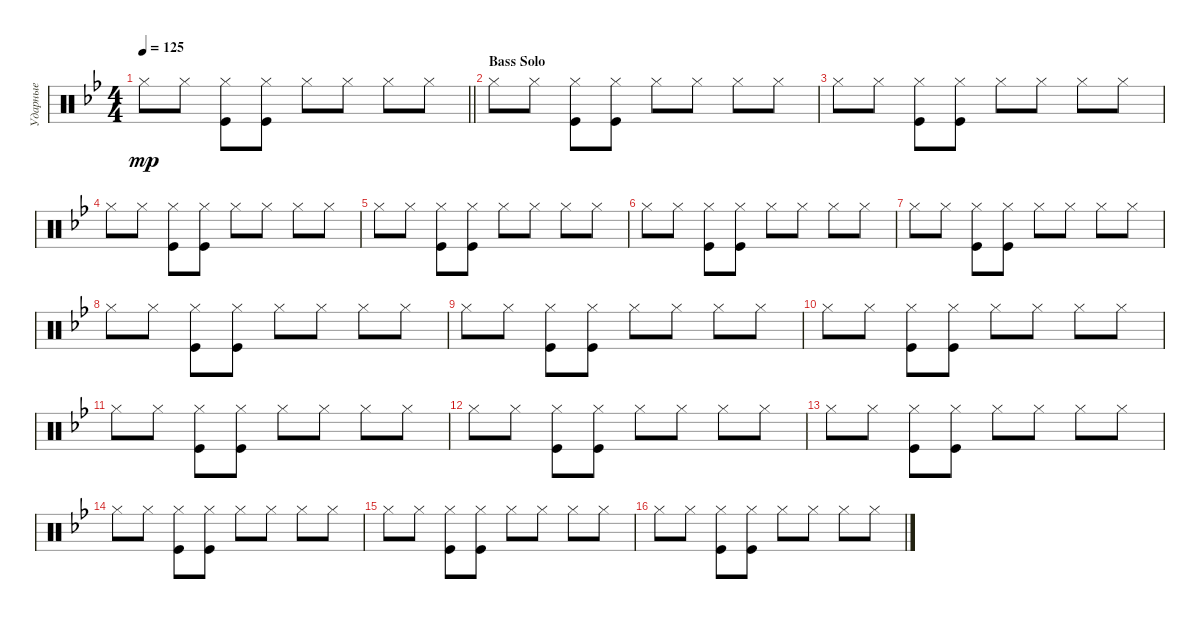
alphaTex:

\track ("Ударные" "Ударные") {instrument percussion}
\staff {score}
\articulation defaults
\ts (4 4)
\tempo 125
\clef neutral
\barLineRight lightlight
\ks gminor "Hi-Hat (closed)".8{dy mp} "Hi-Hat (closed)".8
("Hi-Hat (closed)" "Kick (hit)").8 ("Hi-Hat (closed)" "Kick (hit)").8 "Hi-Hat (closed)".8 "Hi-Hat (closed)".8 "Hi-Hat (closed)".8 "Hi-Hat (closed)".8 |
\section ("" "Bass Solo")
"Hi-Hat (closed)".8 "Hi-Hat (closed)".8 ("Hi-Hat (closed)" "Kick (hit)").8 ("Hi-Hat (closed)" "Kick (hit)").8 "Hi-Hat (closed)".8 "Hi-Hat (closed)".8 "Hi-Hat (closed)".8 "Hi-Hat (closed)".8 |
"Hi-Hat (closed)".8 "Hi-Hat (closed)".8 ("Hi-Hat (closed)" "Kick (hit)").8 ("Hi-Hat (closed)" "Kick (hit)").8 "Hi-Hat (closed)".8 "Hi-Hat (closed)".8 "Hi-Hat (closed)".8 "Hi-Hat (closed)".8 |
"Hi-Hat (closed)".8 "Hi-Hat (closed)".8 ("Hi-Hat (closed)" "Kick (hit)").8 ("Hi-Hat (closed)" "Kick (hit)").8 "Hi-Hat (closed)".8 "Hi-Hat (closed)".8 "Hi-Hat (closed)".8 "Hi-Hat (closed)".8 |
"Hi-Hat (closed)".8 "Hi-Hat (closed)".8 ("Hi-Hat (closed)" "Kick (hit)").8 ("Hi-Hat (closed)" "Kick (hit)").8 "Hi-Hat (closed)".8 "Hi-Hat (closed)".8 "Hi-Hat (closed)".8 "Hi-Hat (closed)".8 |
"Hi-Hat (closed)".8 "Hi-Hat (closed)".8 ("Hi-Hat (closed)" "Kick (hit)").8 ("Hi-Hat (closed)" "Kick (hit)").8 "Hi-Hat (closed)".8 "Hi-Hat (closed)".8 "Hi-Hat (closed)".8 "Hi-Hat (closed)".8 |
"Hi-Hat (closed)".8 "Hi-Hat (closed)".8 ("Hi-Hat (closed)" "Kick (hit)").8 ("Hi-Hat (closed)" "Kick (hit)").8 "Hi-Hat (closed)".8 "Hi-Hat (closed)".8 "Hi-Hat (closed)".8 "Hi-Hat (closed)".8 |
"Hi-Hat (closed)".8 "Hi-Hat (closed)".8 ("Hi-Hat (closed)" "Kick (hit)").8 ("Hi-Hat (closed)" "Kick (hit)").8 "Hi-Hat (closed)".8 "Hi-Hat (closed)".8 "Hi-Hat (closed)".8 "Hi-Hat (closed)".8 |
"Hi-Hat (closed)".8 "Hi-Hat (closed)".8 ("Hi-Hat (closed)" "Kick (hit)").8 ("Hi-Hat (closed)" "Kick (hit)").8 "Hi-Hat (closed)".8 "Hi-Hat (closed)".8 "Hi-Hat (closed)".8 "Hi-Hat (closed)".8 |
"Hi-Hat (closed)".8 "Hi-Hat (closed)".8 ("Hi-Hat (closed)" "Kick (hit)").8 ("Hi-Hat (closed)" "Kick (hit)").8 "Hi-Hat (closed)".8 "Hi-Hat (closed)".8 "Hi-Hat (closed)".8 "Hi-Hat (closed)".8 |
"Hi-Hat (closed)".8 "Hi-Hat (closed)".8 ("Hi-Hat (closed)" "Kick (hit)").8 ("Hi-Hat (closed)" "Kick (hit)").8 "Hi-Hat (closed)".8 "Hi-Hat (closed)".8 "Hi-Hat (closed)".8 "Hi-Hat (closed)".8 |
"Hi-Hat (closed)".8 "Hi-Hat (closed)".8 ("Hi-Hat (closed)" "Kick (hit)").8 ("Hi-Hat (closed)" "Kick (hit)").8 "Hi-Hat (closed)".8 "Hi-Hat (closed)".8 "Hi-Hat (closed)".8 "Hi-Hat (closed)".8 |
"Hi-Hat (closed)".8 "Hi-Hat (closed)".8 ("Hi-Hat (closed)" "Kick (hit)").8 ("Hi-Hat (closed)" "Kick (hit)").8 "Hi-Hat (closed)".8 "Hi-Hat (closed)".8 "Hi-Hat (closed)".8 "Hi-Hat (closed)".8 |
"Hi-Hat (closed)".8 "Hi-Hat (closed)".8 ("Hi-Hat (closed)" "Kick (hit)").8 ("Hi-Hat (closed)" "Kick (hit)").8 "Hi-Hat (closed)".8 "Hi-Hat (closed)".8 "Hi-Hat (closed)".8 "Hi-Hat (closed)".8 |
"Hi-Hat (closed)".8 "Hi-Hat (closed)".8 ("Hi-Hat (closed)" "Kick (hit)").8 ("Hi-Hat (closed)" "Kick (hit)").8 "Hi-Hat (closed)".8 "Hi-Hat (closed)".8 "Hi-Hat (closed)".8 "Hi-Hat (closed)".8 |
"Hi-Hat (closed)".8 "Hi-Hat (closed)".8 ("Hi-Hat (closed)" "Kick (hit)").8 ("Hi-Hat (closed)" "Kick (hit)").8 "Hi-Hat (closed)".8 "Hi-Hat (closed)".8 "Hi-Hat (closed)".8 "Hi-Hat (closed)".8
